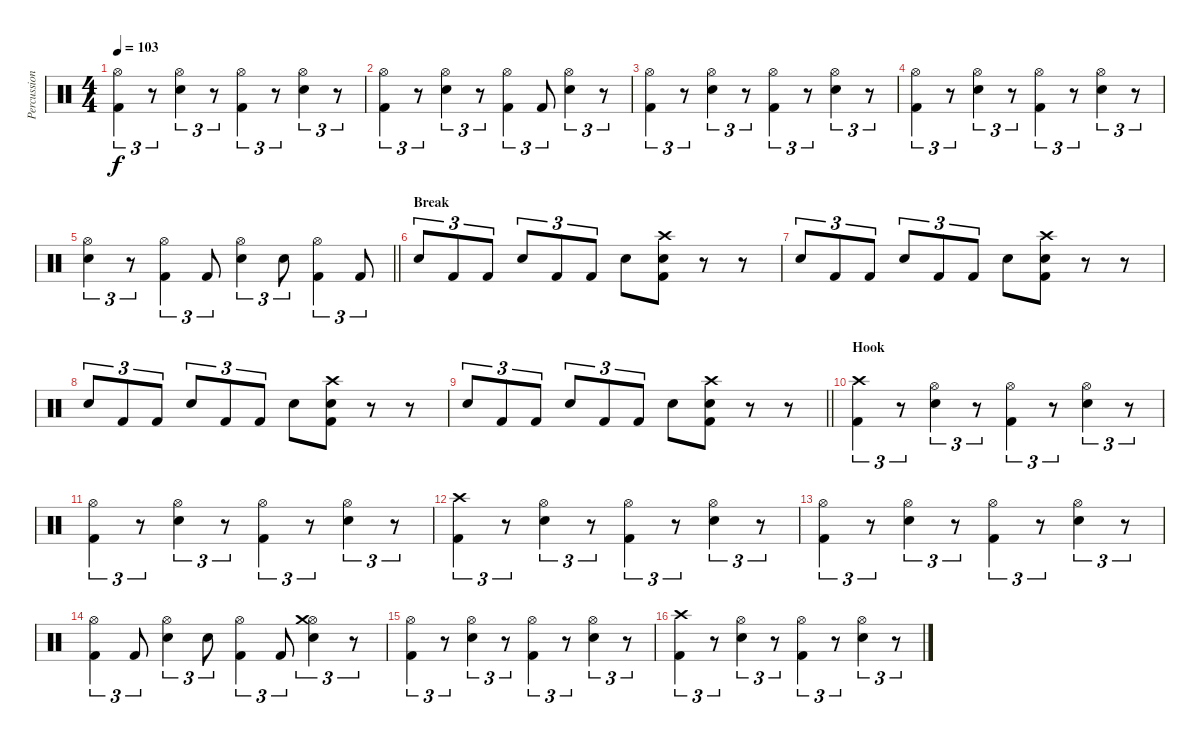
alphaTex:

\track ("Percussion" "Percussion") {instrument percussion}
\staff {score}
\articulation defaults
\ts (4 4)
\tempo 103
\clef neutral
\ks c
("Hi-Hat (open)" "Kick (hit) 2").4{tu (3 2) dy f} r.8{tu (3 2)} ("Hi-Hat (open)" "Electric Snare (hit)").4{tu (3 2)} r.8{tu (3 2)} ("Hi-Hat (open)" "Kick (hit) 2").4{tu (3 2)} r.8{tu (3 2)} ("Hi-Hat (open)" "Electric Snare (hit)").4{tu (3 2)} r.8{tu (3 2)} |
("Hi-Hat (open)" "Kick (hit) 2").4{tu (3 2)} r.8{tu (3 2)} ("Hi-Hat (open)" "Electric Snare (hit)").4{tu (3 2)} r.8{tu (3 2)} ("Hi-Hat (open)" "Kick (hit) 2").4{tu (3 2)} "Kick (hit) 2".8{tu (3 2)} ("Hi-Hat (open)" "Electric Snare (hit)").4{tu (3 2)} r.8{tu (3 2)} |
("Hi-Hat (open)" "Kick (hit) 2").4{tu (3 2)} r.8{tu (3 2)} ("Hi-Hat (open)" "Electric Snare (hit)").4{tu (3 2)} r.8{tu (3 2)} ("Hi-Hat (open)" "Kick (hit) 2").4{tu (3 2)} r.8{tu (3 2)} ("Hi-Hat (open)" "Electric Snare (hit)").4{tu (3 2)} r.8{tu (3 2)} |
("Hi-Hat (open)" "Kick (hit) 2").4{tu (3 2)} r.8{tu (3 2)} ("Hi-Hat (open)" "Electric Snare (hit)").4{tu (3 2)} r.8{tu (3 2)} ("Hi-Hat (open)" "Kick (hit) 2").4{tu (3 2)} r.8{tu (3 2)} ("Hi-Hat (open)" "Electric Snare (hit)").4{tu (3 2)} r.8{tu (3 2)} |
\barLineRight lightlight
("Hi-Hat (open)" "Electric Snare (hit)").4{tu (3 2)} r.8{tu (3 2)} ("Hi-Hat (open)" "Kick (hit) 2").4{tu (3 2)} "Kick (hit) 2".8{tu (3 2)} ("Hi-Hat (open)" "Electric Snare (hit)").4{tu (3 2)} "Electric Snare (hit)".8{tu (3 2)} ("Hi-Hat (open)" "Kick (hit) 2").4{tu (3 2)} "Kick (hit) 2".8{tu (3 2)} |
\section ("" "Break")
"Snare (hit) 2".8{tu (3 2)} "Kick (hit) 2".8{tu (3 2)} "Kick (hit) 2".8{tu (3 2)} "Snare (hit) 2".8{tu (3 2)} "Kick (hit) 2".8{tu (3 2)} "Kick (hit) 2".8{tu (3 2)} "Snare (hit) 2".8 ("Crash high (hit)" "Snare (hit) 2" "Kick (hit) 2").8 r.8 r.8 |
"Snare (hit) 2".8{tu (3 2)} "Kick (hit) 2".8{tu (3 2)} "Kick (hit) 2".8{tu (3 2)} "Snare (hit) 2".8{tu (3 2)} "Kick (hit) 2".8{tu (3 2)} "Kick (hit) 2".8{tu (3 2)} "Snare (hit) 2".8 ("Crash high (hit)" "Snare (hit) 2" "Kick (hit) 2").8 r.8 r.8 |
"Snare (hit) 2".8{tu (3 2)} "Kick (hit) 2".8{tu (3 2)} "Kick (hit) 2".8{tu (3 2)} "Snare (hit) 2".8{tu (3 2)} "Kick (hit) 2".8{tu (3 2)} "Kick (hit) 2".8{tu (3 2)} "Snare (hit) 2".8 ("Crash high (hit)" "Snare (hit) 2" "Kick (hit) 2").8 r.8 r.8 |
\barLineRight lightlight "Snare (hit) 2".8{tu (3 2)} "Kick (hit) 2".8{tu (3 2)} "Kick (hit) 2".8{tu (3 2)} "Snare (hit) 2".8{tu (3 2)} "Kick (hit) 2".8{tu (3 2)} "Kick (hit) 2".8{tu (3 2)} "Snare (hit) 2".8
("Crash high (hit)" "Snare (hit) 2" "Kick (hit) 2").8 r.8 r.8 |
\section ("" "Hook")
("Crash high (hit)" "Kick (hit) 2").4{tu (3 2)} r.8{tu (3 2)} ("Electric Snare (hit)" "Hi-Hat (open)").4{tu (3 2)} r.8{tu (3 2)} ("Kick (hit) 2" "Hi-Hat (open)").4{tu (3 2)} r.8{tu (3 2)} ("Electric Snare (hit)" "Hi-Hat (open)").4{tu (3 2)} r.8{tu (3 2)} |
("Kick (hit) 2" "Hi-Hat (open)").4{tu (3 2)} r.8{tu (3 2)} ("Electric Snare (hit)" "Hi-Hat (open)").4{tu (3 2)} r.8{tu (3 2)} ("Kick (hit) 2" "Hi-Hat (open)").4{tu (3 2)} r.8{tu (3 2)} ("Electric Snare (hit)" "Hi-Hat (open)").4{tu (3 2)} r.8{tu (3 2)} |
("Kick (hit) 2" "Crash high (hit)").4{tu (3 2)} r.8{tu (3 2)} ("Electric Snare (hit)" "Hi-Hat (open)").4{tu (3 2)} r.8{tu (3 2)} ("Kick (hit) 2" "Hi-Hat (open)").4{tu (3 2)} r.8{tu (3 2)} ("Electric Snare (hit)" "Hi-Hat (open)").4{tu (3 2)} r.8{tu (3 2)} |
("Kick (hit) 2" "Hi-Hat (open)").4{tu (3 2)} r.8{tu (3 2)} ("Electric Snare (hit)" "Hi-Hat (open)").4{tu (3 2)} r.8{tu (3 2)} ("Kick (hit) 2" "Hi-Hat (open)").4{tu (3 2)} r.8{tu (3 2)} ("Electric Snare (hit)" "Hi-Hat (open)").4{tu (3 2)} r.8{tu (3 2)} |
("Kick (hit) 2" "Hi-Hat (open)").4{tu (3 2)} "Kick (hit) 2".8{tu (3 2)} ("Electric Snare (hit)" "Hi-Hat (open)").4{tu (3 2)} "Electric Snare (hit)".8{tu (3 2)} ("Kick (hit) 2" "Hi-Hat (open)").4{tu (3 2)} "Kick (hit) 2".8{tu (3 2)} ("Electric Snare (hit)" "Hi-Hat (open)" "Crash medium (hit)").4{tu (3 2)} r.8{tu (3 2)} |
("Kick (hit) 2" "Hi-Hat (open)").4{tu (3 2)} r.8{tu (3 2)} ("Electric Snare (hit)" "Hi-Hat (open)").4{tu (3 2)} r.8{tu (3 2)} ("Kick (hit) 2" "Hi-Hat (open)").4{tu (3 2)} r.8{tu (3 2)} ("Electric Snare (hit)" "Hi-Hat (open)").4{tu (3 2)} r.8{tu (3 2)} |
("Kick (hit) 2" "Crash high (hit)").4{tu (3 2)} r.8{tu (3 2)} ("Electric Snare (hit)" "Hi-Hat (open)").4{tu (3 2)} r.8{tu (3 2)} ("Kick (hit) 2" "Hi-Hat (open)").4{tu (3 2)} r.8{tu (3 2)} ("Electric Snare (hit)" "Hi-Hat (open)").4{tu (3 2)} r.8{tu (3 2)}
